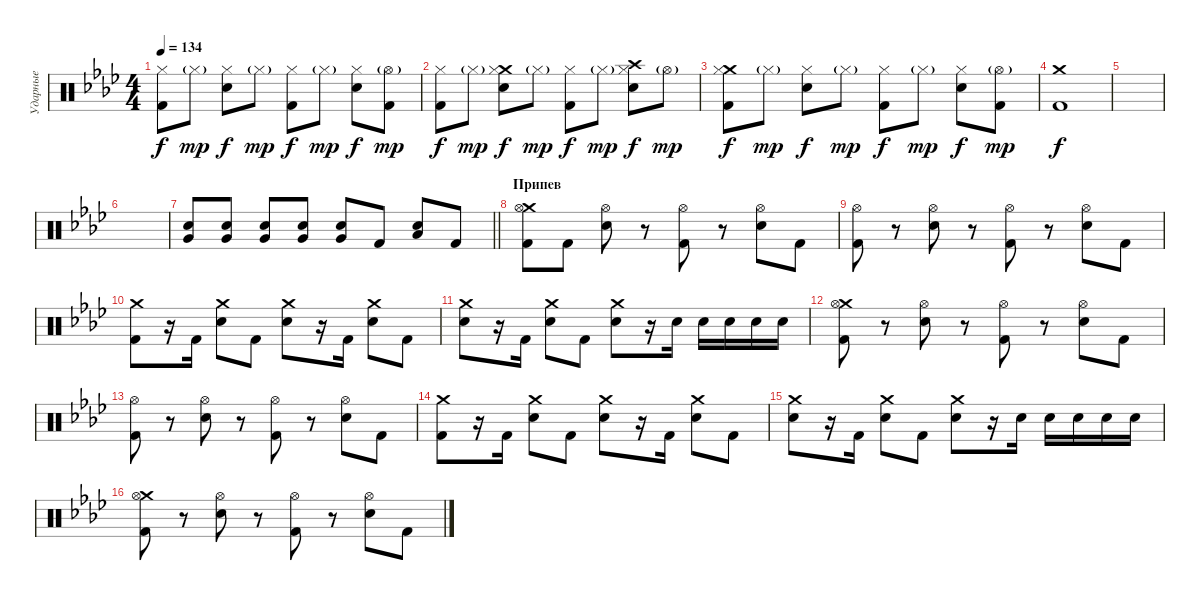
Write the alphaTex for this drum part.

\track ("Ударные" "Ударные") {instrument percussion}
\staff {score}
\articulation defaults
\ts (4 4)
\tempo 134
\clef neutral
\ks fminor
("Hi-Hat (closed)" "Kick (hit) 2").8{dy f} "Hi-Hat (closed)"{g}.8{dy mp} ("Hi-Hat (closed)" "Electric Snare (hit)").8{dy f} "Hi-Hat (closed)"{g}.8{dy mp} ("Hi-Hat (closed)" "Kick (hit) 2").8{dy f} "Hi-Hat (closed)"{g}.8{dy mp} ("Hi-Hat (closed)" "Electric Snare (hit)").8{dy f} ("Hi-Hat (open)"{g} "Kick (hit) 2").8{dy mp} |
("Hi-Hat (closed)" "Kick (hit) 2").8{dy f} "Hi-Hat (closed)"{g}.8{dy mp} ("Crash medium (hit)" "Hi-Hat (closed)" "Electric Snare (hit)").8{dy f} "Hi-Hat (closed)"{g}.8{dy mp} ("Hi-Hat (closed)" "Kick (hit) 2").8{dy f} "Hi-Hat (closed)"{g}.8{dy mp} ("Crash high (hit)" "Hi-Hat (closed)" "Electric Snare (hit)").8{dy f} "Hi-Hat (open)"{g}.8{dy mp} |
("Crash medium (hit)" "Hi-Hat (closed)" "Kick (hit) 2").8{dy f} "Hi-Hat (closed)"{g}.8{dy mp} ("Hi-Hat (closed)" "Electric Snare (hit)").8{dy f} "Hi-Hat (closed)"{g}.8{dy mp} ("Hi-Hat (closed)" "Kick (hit) 2").8{dy f} "Hi-Hat (closed)"{g}.8{dy mp} ("Hi-Hat (closed)" "Electric Snare (hit)").8{dy f} ("Hi-Hat (open)"{g} "Kick (hit) 2").8{dy mp} |
("Crash medium (hit)" "Kick (hit) 2").1{dy f} |
|
|
\barLineRight lightlight
("Electric Snare (hit)" "Very Low Tom (hit)").8 ("Electric Snare (hit)" "Very Low Tom (hit)").8 ("Electric Snare (hit)" "Very Low Tom (hit)").8 ("Electric Snare (hit)" "Very Low Tom (hit)").8 ("Electric Snare (hit)" "Very Low Tom (hit)").8 "Kick (hit) 2".8 ("Electric Snare (hit)" "Low Tom (hit)").8 "Kick (hit) 2".8 |
\section ("" "Припев")
("Crash medium (hit)" "Hi-Hat (open)" "Kick (hit) 2").8 "Kick (hit) 2".8 ("Hi-Hat (open)" "Electric Snare (hit)").8 r.8 ("Hi-Hat (open)" "Kick (hit) 2").8 r.8 ("Hi-Hat (open)" "Electric Snare (hit)").8 "Kick (hit) 2".8 |
("Hi-Hat (open)" "Kick (hit) 2").8 r.8 ("Hi-Hat (open)" "Electric Snare (hit)").8 r.8 ("Hi-Hat (open)" "Kick (hit) 2").8 r.8 ("Hi-Hat (open)" "Electric Snare (hit)").8 "Kick (hit) 2".8 |
("Crash medium (hit)" "Kick (hit) 2").8 r.16 "Kick (hit) 2".16 ("Crash medium (hit)" "Electric Snare (hit)").8 "Kick (hit) 2".8 ("Crash medium (hit)" "Electric Snare (hit)").8 r.16 "Kick (hit) 2".16 ("Crash medium (hit)" "Electric Snare (hit)").8 "Kick (hit) 2".8 |
("Crash medium (hit)" "Electric Snare (hit)").8 r.16 "Kick (hit) 2".16 ("Crash medium (hit)" "Electric Snare (hit)").8 "Kick (hit) 2".8 ("Crash medium (hit)" "Electric Snare (hit)").8 r.16 "Electric Snare (hit)".16 "Electric Snare (hit)".16 "Electric Snare (hit)".16 "Electric Snare (hit)".16 "Electric Snare (hit)".16 |
("Crash medium (hit)" "Hi-Hat (open)" "Kick (hit) 2").8 r.8 ("Hi-Hat (open)" "Electric Snare (hit)").8 r.8 ("Hi-Hat (open)" "Kick (hit) 2").8 r.8 ("Hi-Hat (open)" "Electric Snare (hit)").8 "Kick (hit) 2".8 |
("Hi-Hat (open)" "Kick (hit) 2").8 r.8 ("Hi-Hat (open)" "Electric Snare (hit)").8 r.8 ("Hi-Hat (open)" "Kick (hit) 2").8 r.8 ("Hi-Hat (open)" "Electric Snare (hit)").8 "Kick (hit) 2".8 |
("Crash medium (hit)" "Kick (hit) 2").8 r.16 "Kick (hit) 2".16 ("Crash medium (hit)" "Electric Snare (hit)").8 "Kick (hit) 2".8 ("Crash medium (hit)" "Electric Snare (hit)").8 r.16 "Kick (hit) 2".16 ("Crash medium (hit)" "Electric Snare (hit)").8 "Kick (hit) 2".8 |
("Crash medium (hit)" "Electric Snare (hit)").8 r.16 "Kick (hit) 2".16 ("Crash medium (hit)" "Electric Snare (hit)").8 "Kick (hit) 2".8 ("Crash medium (hit)" "Electric Snare (hit)").8 r.16 "Electric Snare (hit)".16 "Electric Snare (hit)".16 "Electric Snare (hit)".16 "Electric Snare (hit)".16 "Electric Snare (hit)".16 |
("Crash medium (hit)" "Hi-Hat (open)" "Kick (hit) 2").8 r.8 ("Hi-Hat (open)" "Electric Snare (hit)").8 r.8 ("Hi-Hat (open)" "Kick (hit) 2").8 r.8 ("Hi-Hat (open)" "Electric Snare (hit)").8 "Kick (hit) 2".8
